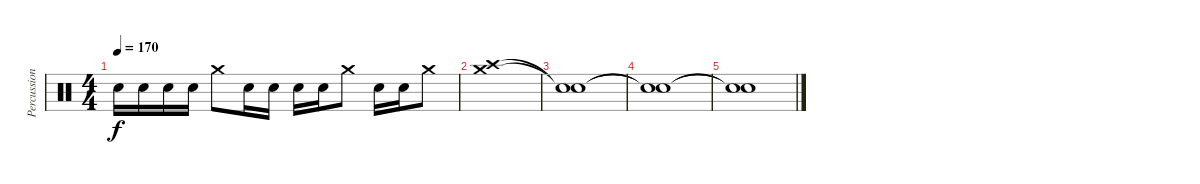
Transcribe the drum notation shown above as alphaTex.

\track ("Percussion" "Percussion") {instrument percussion}
\staff {score}
\articulation defaults
\ts (4 4)
\tempo 170
\clef neutral
\ks c "Snare (hit) 2".16{dy f} "Snare (hit) 2".16 "Snare (hit) 2".16 "Snare (hit) 2".16 "Crash medium (hit)".8 "Snare (hit) 2".16 "Snare (hit) 2".16 "Snare (hit) 2".16 "Snare (hit) 2".16 "Crash medium (hit)".8 "Snare (hit) 2".16 "Snare (hit) 2".16 "Crash medium (hit)".8
|
("Crash medium (hit)" "Crash high (hit)").1 |
("Snare (hit)"{t} "Snare (hit)"{t}).1 |
("Snare (hit)"{t} "Snare (hit)"{t}).1 |
("Snare (hit)"{t} "Snare (hit)"{t}).1
